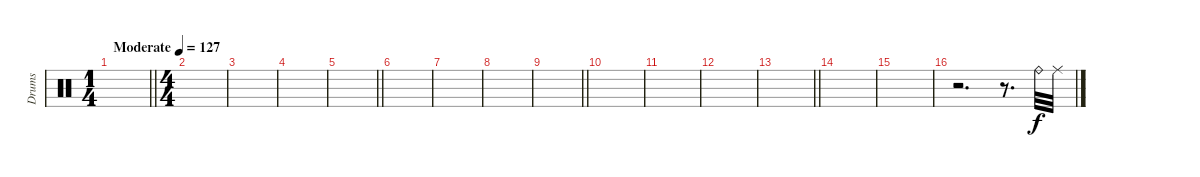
\track ("Drums" "Drums") {instrument percussion}
\staff
\articulation defaults
\ts (1 4)
\tempo (127 "Moderate")
\clef neutral
\barLineRight lightlight
\ks c
|
\ts (4 4)
|
|
|
\barLineRight lightlight
|
|
|
|
\barLineRight lightlight
|
|
|
|
\barLineRight lightlight
|
|
|
r.2{d} r.8{d} "Ride (bell)".32 "Ride (middle)".32
